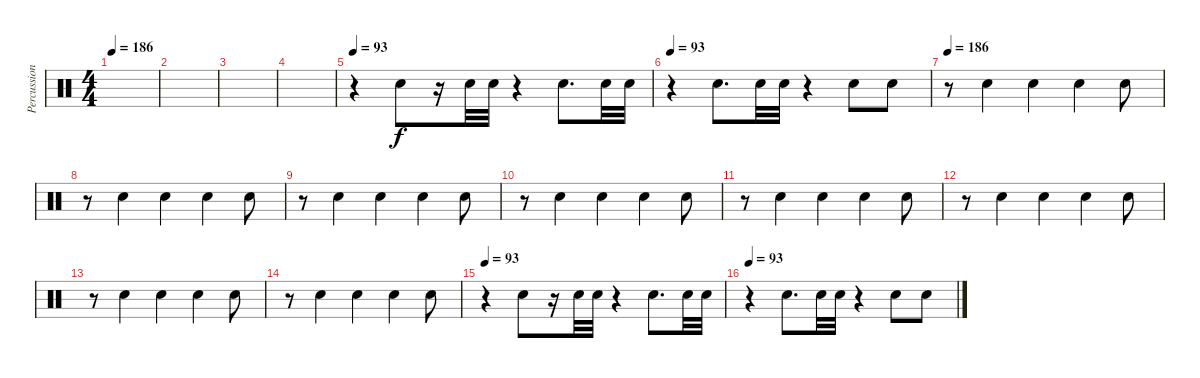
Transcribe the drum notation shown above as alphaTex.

\track ("Percussion" "Percussion") {instrument percussion}
\staff {score}
\articulation defaults
\ts (4 4)
\tempo 186
\clef neutral
\ks c
|
|
|
|
\tempo 93
r.4 "Snare (hit) 2".8 r.16 "Snare (hit) 2".32 "Snare (hit) 2".32 r.4 "Snare (hit) 2".8{d} "Snare (hit) 2".32 "Snare (hit) 2".32 |
\tempo 93
r.4 "Snare (hit) 2".8{d} "Snare (hit) 2".32 "Snare (hit) 2".32 r.4 "Snare (hit) 2".8 "Snare (hit) 2".8 |
\tempo 186
r.8 "Snare (hit) 2".4 "Snare (hit) 2".4 "Snare (hit) 2".4 "Snare (hit) 2".8 |
r.8 "Snare (hit) 2".4 "Snare (hit) 2".4 "Snare (hit) 2".4 "Snare (hit) 2".8 |
r.8 "Snare (hit) 2".4 "Snare (hit) 2".4 "Snare (hit) 2".4 "Snare (hit) 2".8 |
r.8 "Snare (hit) 2".4 "Snare (hit) 2".4 "Snare (hit) 2".4 "Snare (hit) 2".8 |
r.8 "Snare (hit) 2".4 "Snare (hit) 2".4 "Snare (hit) 2".4 "Snare (hit) 2".8 |
r.8 "Snare (hit) 2".4 "Snare (hit) 2".4 "Snare (hit) 2".4 "Snare (hit) 2".8 |
r.8 "Snare (hit) 2".4 "Snare (hit) 2".4 "Snare (hit) 2".4 "Snare (hit) 2".8 |
r.8 "Snare (hit) 2".4 "Snare (hit) 2".4 "Snare (hit) 2".4 "Snare (hit) 2".8 |
\tempo 93
r.4 "Snare (hit) 2".8 r.16 "Snare (hit) 2".32 "Snare (hit) 2".32 r.4 "Snare (hit) 2".8{d} "Snare (hit) 2".32 "Snare (hit) 2".32 |
\tempo 93
r.4 "Snare (hit) 2".8{d} "Snare (hit) 2".32 "Snare (hit) 2".32 r.4 "Snare (hit) 2".8 "Snare (hit) 2".8
